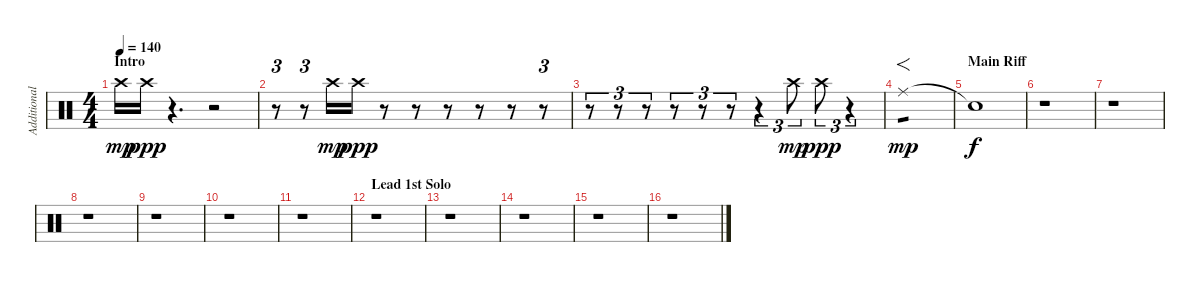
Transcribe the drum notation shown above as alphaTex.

\track ("Additional Drums" "Additional") {instrument percussion}
\staff {score}
\articulation defaults
\ts (4 4)
\section ("" "Intro")
\tempo 140
\clef neutral
\ks c "Crash high (hit)".16{dy mp} "Crash high (hit)".16{dy ppp}
r.4{d} r.2 |
r.8{tu (3 2)} r.8{tu (3 2)} "Crash high (hit)".16{dy mp} "Crash high (hit)".16{dy ppp} r.8 r.8 r.8 r.8 r.8 r.8{tu (3 2)} |
r.8{tu (3 2)} r.8{tu (3 2)} r.8{tu (3 2)} r.8{tu (3 2)} r.8{tu (3 2)} r.8{tu (3 2)} r.4{tu (3 2)} "Crash high (hit)".8{tu (3 2) dy mp} "Crash high (hit)".8{tu (3 2) dy ppp} r.4{tu (3 2)} |
"Ride (middle)".1{f tp 1 dy mp} |
\section ("" "Main Riff")
"Snare (hit)"{t}.1{dy f} |
r.1 |
r.1 |
r.1 |
r.1 |
r.1 |
r.1 |
\section ("" "Lead 1st Solo")
r.1 |
r.1 |
r.1 |
r.1 |
r.1
